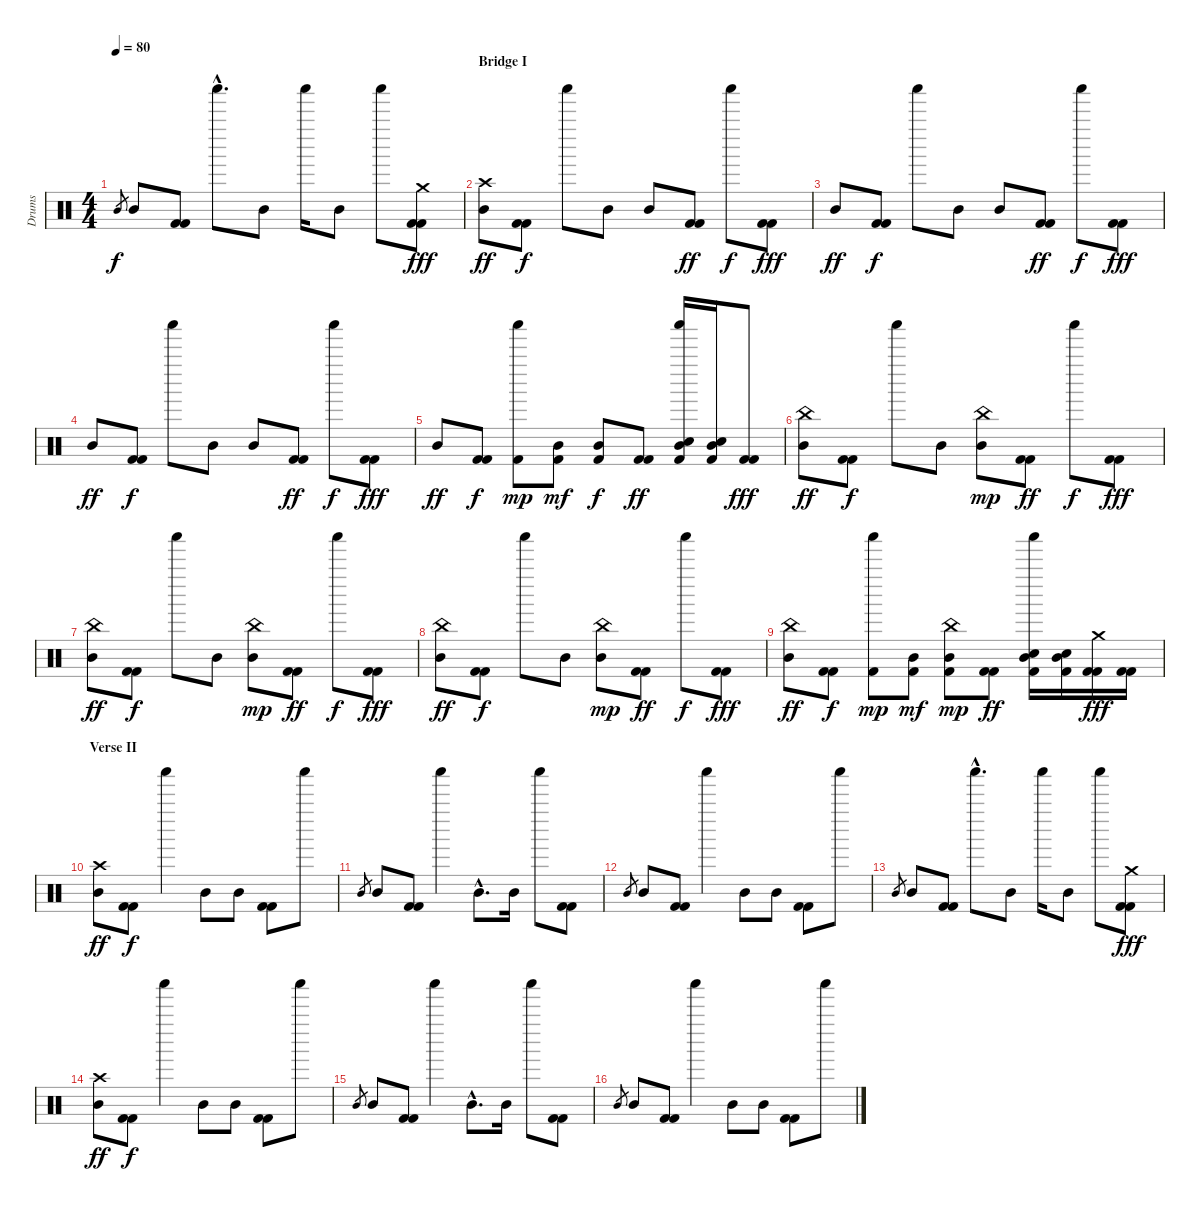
\track ("Drums" "Drums") {instrument percussion}
\staff {score}
\articulation defaults
\ts (4 4)
\tempo 80
\clef neutral
\ks c "Mid Tom (hit)".8{gr dy f} "Mid Tom (hit)".8
("Kick (hit) 2" "Kick (hit) 2").8 "Shaker (hit)"{hac}.8{d} "Mid Tom (hit)".8 "Shaker (hit)".16 "Mid Tom (hit)".8 "Shaker (hit)".8 ("Crash medium (hit)" "Kick (hit) 2" "Kick (hit) 2").8{dy fff} |
\section ("" "Bridge I")
("Crash high (hit)" "Mid Tom (hit)").8{dy ff} ("Kick (hit) 2" "Kick (hit) 2").8{dy f} "Shaker (hit)".8 "Mid Tom (hit)".8 "Mid Tom (hit)".8 ("Kick (hit) 2" "Kick (hit) 2").8{dy ff} "Shaker (hit)".8{dy f} ("Kick (hit) 2" "Kick (hit) 2").8{dy fff} |
"Mid Tom (hit)".8{bd 60 dy ff} ("Kick (hit) 2" "Kick (hit) 2").8{dy f} "Shaker (hit)".8 "Mid Tom (hit)".8 "Mid Tom (hit)".8 ("Kick (hit) 2" "Kick (hit) 2").8{dy ff} "Shaker (hit)".8{dy f} ("Kick (hit) 2" "Kick (hit) 2").8{dy fff} |
"Mid Tom (hit)".8{bd 60 dy ff} ("Kick (hit) 2" "Kick (hit) 2").8{dy f} "Shaker (hit)".8 "Mid Tom (hit)".8 "Mid Tom (hit)".8 ("Kick (hit) 2" "Kick (hit) 2").8{dy ff} "Shaker (hit)".8{dy f} ("Kick (hit) 2" "Kick (hit) 2").8{dy fff} |
"Mid Tom (hit)".8{bd 60 dy ff} ("Kick (hit) 2" "Kick (hit) 2").8{dy f} ("Shaker (hit)" "Kick (hit) 2").8{dy mp} ("Mid Tom (hit)" "Kick (hit) 2").8{dy mf} ("Mid Tom (hit)" "Kick (hit) 2").8{dy f} ("Kick (hit) 2" "Kick (hit) 2").8{dy ff} ("Shaker (hit)" "Mid Tom (hit)" "Electric Snare (hit)" "Kick (hit) 2").16 ("Mid Tom (hit)" "Electric Snare (hit)" "Kick (hit) 2").16 ("Kick (hit) 2" "Kick (hit) 2").8{dy fff} |
("China (hit)" "Mid Tom (hit)").8{dy ff} ("Kick (hit) 2" "Kick (hit) 2").8{dy f} "Shaker (hit)".8 "Mid Tom (hit)".8 ("China (hit)" "Mid Tom (hit)").8{dy mp} ("Kick (hit) 2" "Kick (hit) 2").8{dy ff} "Shaker (hit)".8{dy f} ("Kick (hit) 2" "Kick (hit) 2").8{dy fff} |
("China (hit)" "Mid Tom (hit)").8{bd 60 dy ff} ("Kick (hit) 2" "Kick (hit) 2").8{dy f} "Shaker (hit)".8 "Mid Tom (hit)".8 ("China (hit)" "Mid Tom (hit)").8{dy mp} ("Kick (hit) 2" "Kick (hit) 2").8{dy ff} "Shaker (hit)".8{dy f} ("Kick (hit) 2" "Kick (hit) 2").8{dy fff} |
("China (hit)" "Mid Tom (hit)").8{bd 60 dy ff} ("Kick (hit) 2" "Kick (hit) 2").8{dy f} "Shaker (hit)".8 "Mid Tom (hit)".8 ("China (hit)" "Mid Tom (hit)").8{dy mp} ("Kick (hit) 2" "Kick (hit) 2").8{dy ff} "Shaker (hit)".8{dy f} ("Kick (hit) 2" "Kick (hit) 2").8{dy fff} |
("China (hit)" "Mid Tom (hit)").8{bd 60 dy ff} ("Kick (hit) 2" "Kick (hit) 2").8{dy f} ("Shaker (hit)" "Kick (hit) 2").8{dy mp} ("Mid Tom (hit)" "Kick (hit) 2").8{dy mf} ("China (hit)" "Mid Tom (hit)" "Kick (hit) 2").8{dy mp} ("Kick (hit) 2" "Kick (hit) 2").8{dy ff} ("Shaker (hit)" "Mid Tom (hit)" "Electric Snare (hit)" "Kick (hit) 2").16 ("Mid Tom (hit)" "Electric Snare (hit)" "Kick (hit) 2").16 ("Crash medium (hit)" "Kick (hit) 2" "Kick (hit) 2").16{dy fff} ("Kick (hit) 2" "Kick (hit) 2").16 |
\section ("" "Verse II")
("Crash high (hit)" "Mid Tom (hit)").8{bd 60 dy ff} ("Kick (hit) 2" "Kick (hit) 2").8{dy f} "Shaker (hit)".4 "Mid Tom (hit)".8 "Mid Tom (hit)".8 ("Kick (hit) 2" "Kick (hit) 2").8 "Shaker (hit)".8 |
"Mid Tom (hit)".8{gr} "Mid Tom (hit)".8 ("Kick (hit) 2" "Kick (hit) 2").8 "Shaker (hit)".4 "Mid Tom (hit)"{hac}.8{d} "Mid Tom (hit)".16 "Shaker (hit)".8 ("Kick (hit) 2" "Kick (hit) 2").8 |
"Mid Tom (hit)".8{gr} "Mid Tom (hit)".8 ("Kick (hit) 2" "Kick (hit) 2").8 "Shaker (hit)".4 "Mid Tom (hit)".8 "Mid Tom (hit)".8 ("Kick (hit) 2" "Kick (hit) 2").8 "Shaker (hit)".8 |
"Mid Tom (hit)".8{gr} "Mid Tom (hit)".8 ("Kick (hit) 2" "Kick (hit) 2").8 "Shaker (hit)"{hac}.8{d} "Mid Tom (hit)".8 "Shaker (hit)".16 "Mid Tom (hit)".8 "Shaker (hit)".8 ("Crash medium (hit)" "Kick (hit) 2" "Kick (hit) 2").8{dy fff} |
("Crash high (hit)" "Mid Tom (hit)").8{bd 60 dy ff} ("Kick (hit) 2" "Kick (hit) 2").8{dy f} "Shaker (hit)".4 "Mid Tom (hit)".8 "Mid Tom (hit)".8 ("Kick (hit) 2" "Kick (hit) 2").8 "Shaker (hit)".8 |
"Mid Tom (hit)".8{gr} "Mid Tom (hit)".8 ("Kick (hit) 2" "Kick (hit) 2").8 "Shaker (hit)".4 "Mid Tom (hit)"{hac}.8{d} "Mid Tom (hit)".16 "Shaker (hit)".8 ("Kick (hit) 2" "Kick (hit) 2").8 |
"Mid Tom (hit)".8{gr} "Mid Tom (hit)".8 ("Kick (hit) 2" "Kick (hit) 2").8 "Shaker (hit)".4 "Mid Tom (hit)".8 "Mid Tom (hit)".8 ("Kick (hit) 2" "Kick (hit) 2").8 "Shaker (hit)".8
